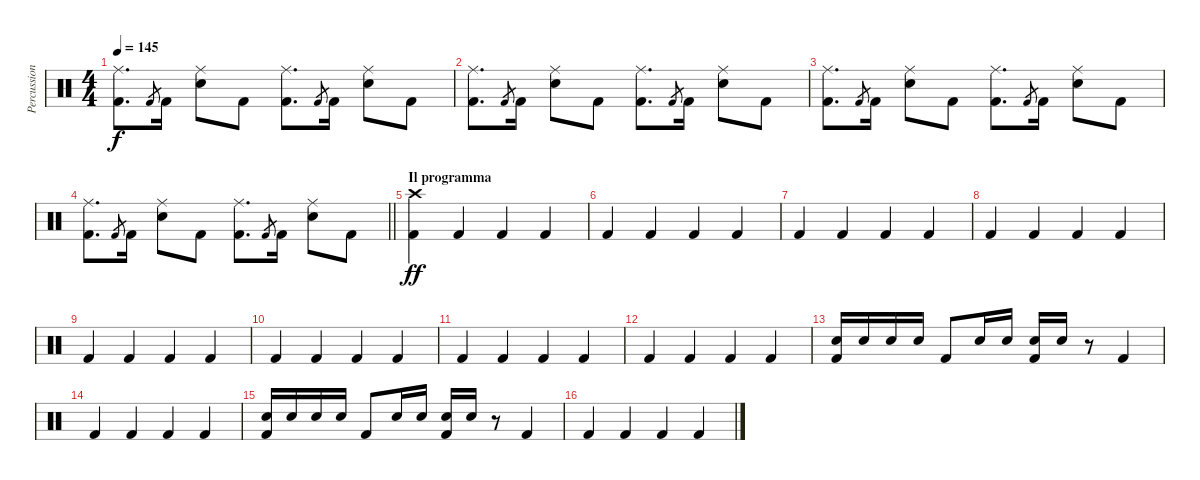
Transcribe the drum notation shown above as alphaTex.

\track ("Percussioni" "Percussion") {instrument percussion}
\staff {score}
\articulation defaults
\ts (4 4)
\tempo 145
\clef neutral
\ks c
("Ride (middle)" "Kick (hit) 2").8{d dy f} "Kick (hit) 2".8{gr} "Kick (hit) 2".16 ("Ride (middle)" "Snare (hit) 2").8 "Kick (hit) 2".8 ("Ride (middle)" "Kick (hit) 2").8{d} "Kick (hit) 2".8{gr} "Kick (hit) 2".16 ("Ride (middle)" "Snare (hit) 2").8 "Kick (hit) 2".8 |
("Ride (middle)" "Kick (hit) 2").8{d} "Kick (hit) 2".8{gr} "Kick (hit) 2".16 ("Ride (middle)" "Snare (hit) 2").8 "Kick (hit) 2".8 ("Ride (middle)" "Kick (hit) 2").8{d} "Kick (hit) 2".8{gr} "Kick (hit) 2".16 ("Ride (middle)" "Snare (hit) 2").8 "Kick (hit) 2".8 |
("Ride (middle)" "Kick (hit) 2").8{d} "Kick (hit) 2".8{gr} "Kick (hit) 2".16 ("Ride (middle)" "Snare (hit) 2").8 "Kick (hit) 2".8 ("Ride (middle)" "Kick (hit) 2").8{d} "Kick (hit) 2".8{gr} "Kick (hit) 2".16 ("Ride (middle)" "Snare (hit) 2").8 "Kick (hit) 2".8 |
\barLineRight lightlight
("Ride (middle)" "Kick (hit) 2").8{d} "Kick (hit) 2".8{gr} "Kick (hit) 2".16 ("Ride (middle)" "Snare (hit) 2").8 "Kick (hit) 2".8 ("Ride (middle)" "Kick (hit) 2").8{d} "Kick (hit) 2".8{gr} "Kick (hit) 2".16 ("Ride (middle)" "Snare (hit) 2").8 "Kick (hit) 2".8 |
\section ("" "Il programma")
("Crash high (hit)" "Kick (hit) 2").4{dy ff} "Kick (hit) 2".4 "Kick (hit) 2".4 "Kick (hit) 2".4 |
"Kick (hit) 2".4 "Kick (hit) 2".4 "Kick (hit) 2".4 "Kick (hit) 2".4 |
"Kick (hit) 2".4 "Kick (hit) 2".4 "Kick (hit) 2".4 "Kick (hit) 2".4 |
"Kick (hit) 2".4 "Kick (hit) 2".4 "Kick (hit) 2".4 "Kick (hit) 2".4 |
"Kick (hit) 2".4 "Kick (hit) 2".4 "Kick (hit) 2".4 "Kick (hit) 2".4 |
"Kick (hit) 2".4 "Kick (hit) 2".4 "Kick (hit) 2".4 "Kick (hit) 2".4 |
"Kick (hit) 2".4 "Kick (hit) 2".4 "Kick (hit) 2".4 "Kick (hit) 2".4 |
"Kick (hit) 2".4 "Kick (hit) 2".4 "Kick (hit) 2".4 "Kick (hit) 2".4 |
("Kick (hit) 2" "Snare (hit) 2").16 "Snare (hit) 2".16 "Snare (hit) 2".16 "Snare (hit) 2".16 "Kick (hit) 2".8 "Snare (hit) 2".16 "Snare (hit) 2".16 ("Kick (hit) 2" "Snare (hit) 2").16 "Snare (hit) 2".16 r.8 "Kick (hit) 2".4 |
"Kick (hit) 2".4 "Kick (hit) 2".4 "Kick (hit) 2".4 "Kick (hit) 2".4 |
("Kick (hit) 2" "Snare (hit) 2").16 "Snare (hit) 2".16 "Snare (hit) 2".16 "Snare (hit) 2".16 "Kick (hit) 2".8 "Snare (hit) 2".16 "Snare (hit) 2".16 ("Kick (hit) 2" "Snare (hit) 2").16 "Snare (hit) 2".16 r.8 "Kick (hit) 2".4 |
"Kick (hit) 2".4 "Kick (hit) 2".4 "Kick (hit) 2".4 "Kick (hit) 2".4
